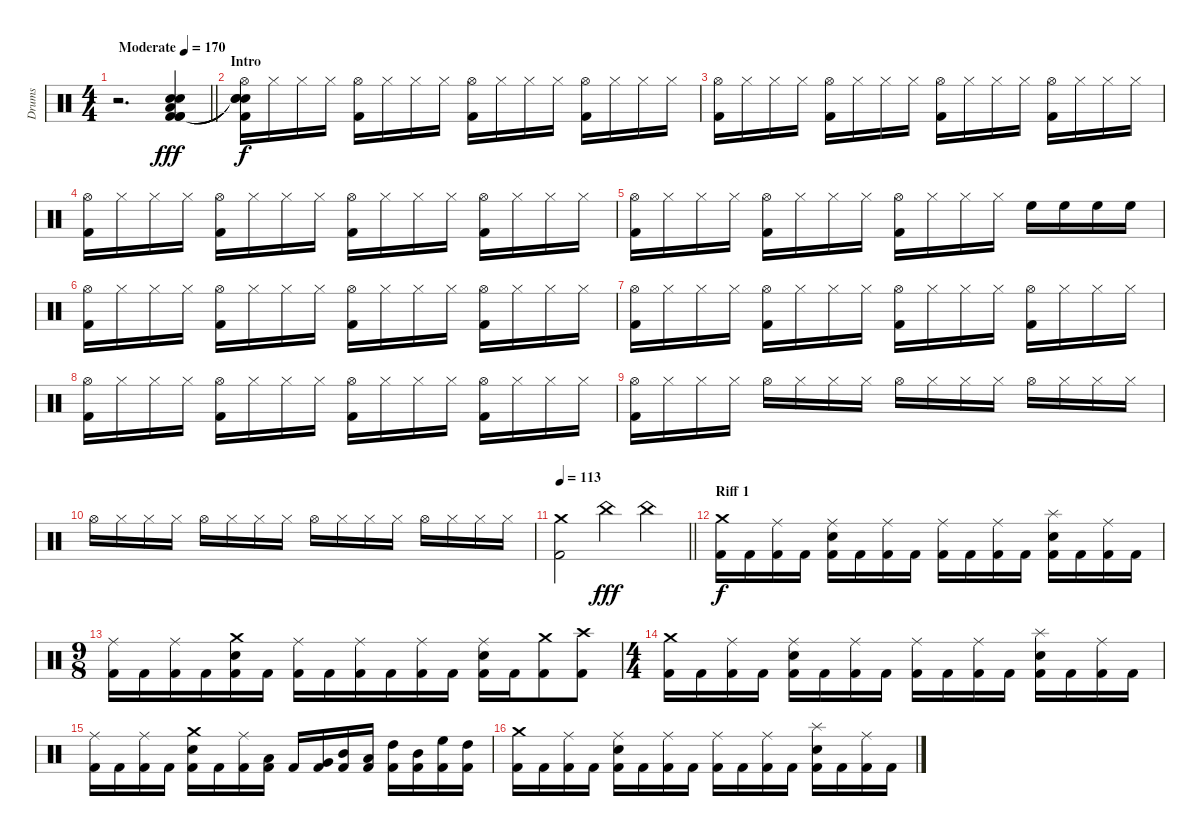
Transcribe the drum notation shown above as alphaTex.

\track ("Drums" "Drums") {instrument percussion}
\staff {score}
\articulation defaults
\ts (4 4)
\tempo (170 "Moderate")
\clef neutral
\barLineRight lightlight
\ks c
r.2{d dy fff} ("Kick (hit) 2" "Kick (hit) 2" "Kick (hit) 2" "Snare (hit) 2" "Snare (hit) 2" "Low Tom (hit)").4 |
\section ("" "Intro")
("Snare (hit)"{t} "Snare (hit)"{t} "Snare (hit)"{t} "Hi-Hat (open)" "Kick (hit) 2").16{dy f} "Hi-Hat (closed)".16 "Hi-Hat (closed)".16 "Hi-Hat (closed)".16 ("Hi-Hat (open)" "Kick (hit) 2").16 "Hi-Hat (closed)".16 "Hi-Hat (closed)".16 "Hi-Hat (closed)".16 ("Hi-Hat (open)" "Kick (hit) 2").16 "Hi-Hat (closed)".16 "Hi-Hat (closed)".16 "Hi-Hat (closed)".16 ("Hi-Hat (open)" "Kick (hit) 2").16 "Hi-Hat (closed)".16 "Hi-Hat (closed)".16 "Hi-Hat (closed)".16 |
("Hi-Hat (open)" "Kick (hit) 2").16 "Hi-Hat (closed)".16 "Hi-Hat (closed)".16 "Hi-Hat (closed)".16 ("Hi-Hat (open)" "Kick (hit) 2").16 "Hi-Hat (closed)".16 "Hi-Hat (closed)".16 "Hi-Hat (closed)".16 ("Hi-Hat (open)" "Kick (hit) 2").16 "Hi-Hat (closed)".16 "Hi-Hat (closed)".16 "Hi-Hat (closed)".16 ("Hi-Hat (open)" "Kick (hit) 2").16 "Hi-Hat (closed)".16 "Hi-Hat (closed)".16 "Hi-Hat (closed)".16 |
("Hi-Hat (open)" "Kick (hit) 2").16 "Hi-Hat (closed)".16 "Hi-Hat (closed)".16 "Hi-Hat (closed)".16 ("Hi-Hat (open)" "Kick (hit) 2").16 "Hi-Hat (closed)".16 "Hi-Hat (closed)".16 "Hi-Hat (closed)".16 ("Hi-Hat (open)" "Kick (hit) 2").16 "Hi-Hat (closed)".16 "Hi-Hat (closed)".16 "Hi-Hat (closed)".16 ("Hi-Hat (open)" "Kick (hit) 2").16 "Hi-Hat (closed)".16 "Hi-Hat (closed)".16 "Hi-Hat (closed)".16 |
("Hi-Hat (open)" "Kick (hit) 2").16 "Hi-Hat (closed)".16 "Hi-Hat (closed)".16 "Hi-Hat (closed)".16 ("Hi-Hat (open)" "Kick (hit) 2").16 "Hi-Hat (closed)".16 "Hi-Hat (closed)".16 "Hi-Hat (closed)".16 ("Hi-Hat (open)" "Kick (hit) 2").16 "Hi-Hat (closed)".16 "Hi-Hat (closed)".16 "Hi-Hat (closed)".16 "High Floor Tom (hit)".16 "High Floor Tom (hit)".16 "High Floor Tom (hit)".16 "High Floor Tom (hit)".16 |
("Hi-Hat (open)" "Kick (hit) 2").16 "Hi-Hat (closed)".16 "Hi-Hat (closed)".16 "Hi-Hat (closed)".16 ("Hi-Hat (open)" "Kick (hit) 2").16 "Hi-Hat (closed)".16 "Hi-Hat (closed)".16 "Hi-Hat (closed)".16 ("Hi-Hat (open)" "Kick (hit) 2").16 "Hi-Hat (closed)".16 "Hi-Hat (closed)".16 "Hi-Hat (closed)".16 ("Hi-Hat (open)" "Kick (hit) 2").16 "Hi-Hat (closed)".16 "Hi-Hat (closed)".16 "Hi-Hat (closed)".16 |
("Hi-Hat (open)" "Kick (hit) 2").16 "Hi-Hat (closed)".16 "Hi-Hat (closed)".16 "Hi-Hat (closed)".16 ("Hi-Hat (open)" "Kick (hit) 2").16 "Hi-Hat (closed)".16 "Hi-Hat (closed)".16 "Hi-Hat (closed)".16 ("Hi-Hat (open)" "Kick (hit) 2").16 "Hi-Hat (closed)".16 "Hi-Hat (closed)".16 "Hi-Hat (closed)".16 ("Hi-Hat (open)" "Kick (hit) 2").16 "Hi-Hat (closed)".16 "Hi-Hat (closed)".16 "Hi-Hat (closed)".16 |
("Hi-Hat (open)" "Kick (hit) 2").16 "Hi-Hat (closed)".16 "Hi-Hat (closed)".16 "Hi-Hat (closed)".16 ("Hi-Hat (open)" "Kick (hit) 2").16 "Hi-Hat (closed)".16 "Hi-Hat (closed)".16 "Hi-Hat (closed)".16 ("Hi-Hat (open)" "Kick (hit) 2").16 "Hi-Hat (closed)".16 "Hi-Hat (closed)".16 "Hi-Hat (closed)".16 ("Hi-Hat (open)" "Kick (hit) 2").16 "Hi-Hat (closed)".16 "Hi-Hat (closed)".16 "Hi-Hat (closed)".16 |
("Hi-Hat (open)" "Kick (hit) 2").16 "Hi-Hat (closed)".16 "Hi-Hat (closed)".16 "Hi-Hat (closed)".16 "Hi-Hat (open)".16 "Hi-Hat (closed)".16 "Hi-Hat (closed)".16 "Hi-Hat (closed)".16 "Hi-Hat (open)".16 "Hi-Hat (closed)".16 "Hi-Hat (closed)".16 "Hi-Hat (closed)".16 "Hi-Hat (open)".16 "Hi-Hat (closed)".16 "Hi-Hat (closed)".16 "Hi-Hat (closed)".16 |
"Hi-Hat (open)".16 "Hi-Hat (closed)".16 "Hi-Hat (closed)".16 "Hi-Hat (closed)".16 "Hi-Hat (open)".16 "Hi-Hat (closed)".16 "Hi-Hat (closed)".16 "Hi-Hat (closed)".16 "Hi-Hat (open)".16 "Hi-Hat (closed)".16 "Hi-Hat (closed)".16 "Hi-Hat (closed)".16 "Hi-Hat (open)".16 "Hi-Hat (closed)".16 "Hi-Hat (closed)".16 "Hi-Hat (closed)".16 |
\tempo 113
\barLineRight lightlight
("Crash medium (hit)" "Kick (hit) 2").2 "China (hit)".4{dy fff} "China (hit)".4 |
\section ("" "Riff 1")
("Crash medium (hit)" "Kick (hit) 2").16{dy f} "Kick (hit) 2".16 ("Ride (middle)" "Kick (hit) 2").16 "Kick (hit) 2".16 ("Ride (middle)" "Snare (hit) 2" "Kick (hit) 2").16 "Kick (hit) 2".16 ("Ride (middle)" "Kick (hit) 2").16 "Kick (hit) 2".16 ("Ride (middle)" "Kick (hit) 2").16 "Kick (hit) 2".16 ("Ride (middle)" "Kick (hit) 2").16 "Kick (hit) 2".16 ("Splash (hit)" "Snare (hit) 2" "Kick (hit) 2").16 "Kick (hit) 2".16 ("Ride (middle)" "Kick (hit) 2").16 "Kick (hit) 2".16 |
\ts (9 8)
("Ride (middle)" "Kick (hit) 2").16 "Kick (hit) 2".16 ("Ride (middle)" "Kick (hit) 2").16 "Kick (hit) 2".16 ("Crash medium (hit)" "Snare (hit) 2" "Kick (hit) 2").16 "Kick (hit) 2".16 ("Ride (middle)" "Kick (hit) 2").16 "Kick (hit) 2".16 ("Ride (middle)" "Kick (hit) 2").16 "Kick (hit) 2".16 ("Ride (middle)" "Kick (hit) 2").16 "Kick (hit) 2".16 ("Ride (middle)" "Snare (hit) 2" "Kick (hit) 2").16 "Kick (hit) 2".16 ("Crash medium (hit)" "Kick (hit) 2").8 ("Crash high (hit)" "Kick (hit) 2").8 |
\ts (4 4)
("Crash medium (hit)" "Kick (hit) 2").16 "Kick (hit) 2".16 ("Ride (middle)" "Kick (hit) 2").16 "Kick (hit) 2".16 ("Ride (middle)" "Snare (hit) 2" "Kick (hit) 2").16 "Kick (hit) 2".16 ("Ride (middle)" "Kick (hit) 2").16 "Kick (hit) 2".16 ("Ride (middle)" "Kick (hit) 2").16 "Kick (hit) 2".16 ("Ride (middle)" "Kick (hit) 2").16 "Kick (hit) 2".16 ("Splash (hit)" "Snare (hit) 2" "Kick (hit) 2").16 "Kick (hit) 2".16 ("Ride (middle)" "Kick (hit) 2").16 "Kick (hit) 2".16 |
("Ride (middle)" "Kick (hit) 2").16 "Kick (hit) 2".16 ("Ride (middle)" "Kick (hit) 2").16 "Kick (hit) 2".16 ("Crash medium (hit)" "Snare (hit) 2" "Kick (hit) 2").16 "Kick (hit) 2".16 ("Ride (middle)" "Kick (hit) 2").16 ("Low Tom (hit)" "Kick (hit) 2").16 "Kick (hit) 2".16 ("Very Low Tom (hit)" "Kick (hit) 2").16 ("Mid Tom (hit)" "Kick (hit) 2").16 ("Low Tom (hit)" "Kick (hit) 2").16 ("High Tom (hit)" "Kick (hit) 2").16 ("Mid Tom (hit)" "Kick (hit) 2").16 ("High Floor Tom (hit)" "Kick (hit) 2").16 ("High Tom (hit)" "Kick (hit) 2").16 |
("Crash medium (hit)" "Kick (hit) 2").16 "Kick (hit) 2".16 ("Ride (middle)" "Kick (hit) 2").16 "Kick (hit) 2".16 ("Ride (middle)" "Snare (hit) 2" "Kick (hit) 2").16 "Kick (hit) 2".16 ("Ride (middle)" "Kick (hit) 2").16 "Kick (hit) 2".16 ("Ride (middle)" "Kick (hit) 2").16 "Kick (hit) 2".16 ("Ride (middle)" "Kick (hit) 2").16 "Kick (hit) 2".16 ("Splash (hit)" "Snare (hit) 2" "Kick (hit) 2").16 "Kick (hit) 2".16 ("Ride (middle)" "Kick (hit) 2").16 "Kick (hit) 2".16
